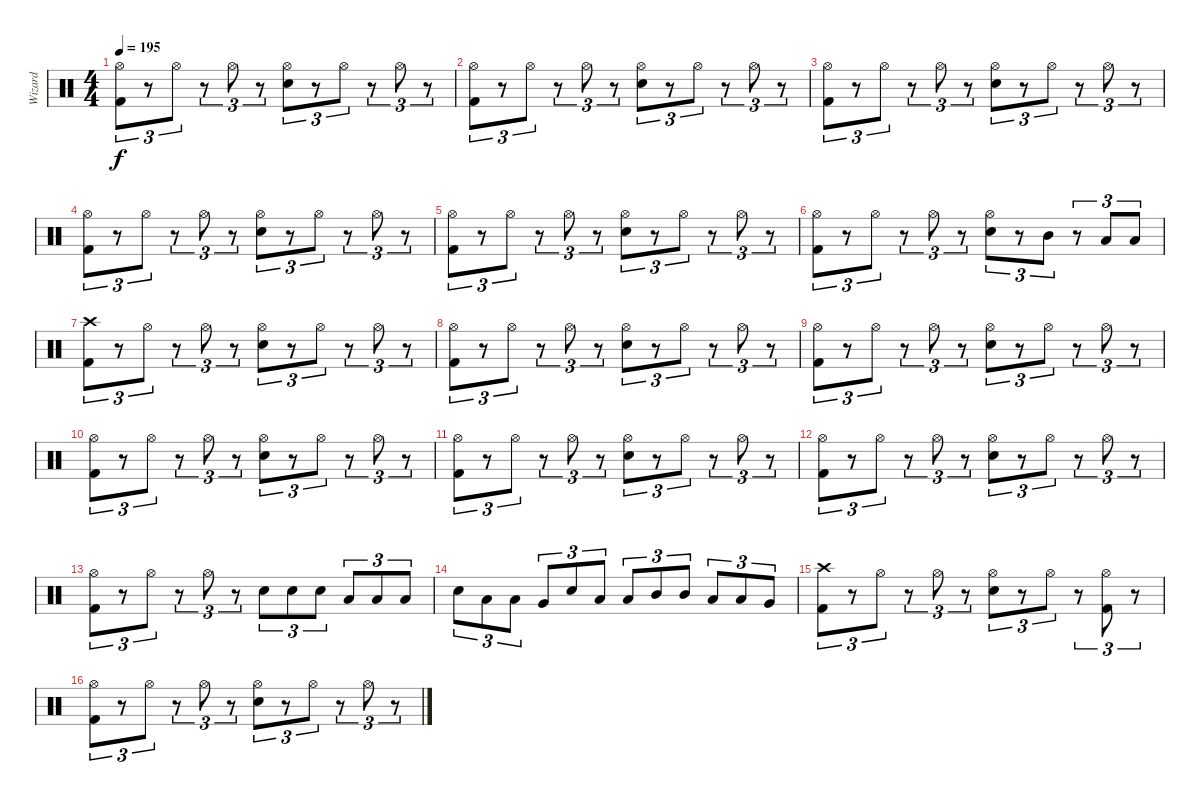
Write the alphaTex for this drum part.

\track ("Wizard" "Wizard") {instrument percussion}
\staff {score}
\articulation defaults
\ts (4 4)
\tempo 195
\clef neutral
\ks c
("Hi-Hat (open)" "Kick (hit) 2").8{tu (3 2) dy f} r.8{tu (3 2)} "Hi-Hat (open)".8{tu (3 2)} r.8{tu (3 2)} "Hi-Hat (open)".8{tu (3 2)} r.8{tu (3 2)} ("Hi-Hat (open)" "Snare (hit) 2").8{tu (3 2)} r.8{tu (3 2)} "Hi-Hat (open)".8{tu (3 2)} r.8{tu (3 2)} "Hi-Hat (open)".8{tu (3 2)} r.8{tu (3 2)} |
("Hi-Hat (open)" "Kick (hit) 2").8{tu (3 2)} r.8{tu (3 2)} "Hi-Hat (open)".8{tu (3 2)} r.8{tu (3 2)} "Hi-Hat (open)".8{tu (3 2)} r.8{tu (3 2)} ("Hi-Hat (open)" "Snare (hit) 2").8{tu (3 2)} r.8{tu (3 2)} "Hi-Hat (open)".8{tu (3 2)} r.8{tu (3 2)} "Hi-Hat (open)".8{tu (3 2)} r.8{tu (3 2)} |
("Hi-Hat (open)" "Kick (hit) 2").8{tu (3 2)} r.8{tu (3 2)} "Hi-Hat (open)".8{tu (3 2)} r.8{tu (3 2)} "Hi-Hat (open)".8{tu (3 2)} r.8{tu (3 2)} ("Hi-Hat (open)" "Snare (hit) 2").8{tu (3 2)} r.8{tu (3 2)} "Hi-Hat (open)".8{tu (3 2)} r.8{tu (3 2)} "Hi-Hat (open)".8{tu (3 2)} r.8{tu (3 2)} |
("Hi-Hat (open)" "Kick (hit) 2").8{tu (3 2)} r.8{tu (3 2)} "Hi-Hat (open)".8{tu (3 2)} r.8{tu (3 2)} "Hi-Hat (open)".8{tu (3 2)} r.8{tu (3 2)} ("Hi-Hat (open)" "Snare (hit) 2").8{tu (3 2)} r.8{tu (3 2)} "Hi-Hat (open)".8{tu (3 2)} r.8{tu (3 2)} "Hi-Hat (open)".8{tu (3 2)} r.8{tu (3 2)} |
("Hi-Hat (open)" "Kick (hit) 2").8{tu (3 2)} r.8{tu (3 2)} "Hi-Hat (open)".8{tu (3 2)} r.8{tu (3 2)} "Hi-Hat (open)".8{tu (3 2)} r.8{tu (3 2)} ("Hi-Hat (open)" "Snare (hit) 2").8{tu (3 2)} r.8{tu (3 2)} "Hi-Hat (open)".8{tu (3 2)} r.8{tu (3 2)} "Hi-Hat (open)".8{tu (3 2)} r.8{tu (3 2)} |
("Hi-Hat (open)" "Kick (hit) 2").8{tu (3 2)} r.8{tu (3 2)} "Hi-Hat (open)".8{tu (3 2)} r.8{tu (3 2)} "Hi-Hat (open)".8{tu (3 2)} r.8{tu (3 2)} ("Hi-Hat (open)" "Snare (hit) 2").8{tu (3 2)} r.8{tu (3 2)} "Mid Tom (hit)".8{tu (3 2)} r.8{tu (3 2)} "Low Tom (hit)".8{tu (3 2)} "Low Tom (hit)".8{tu (3 2)} |
("Crash high (hit)" "Kick (hit) 2").8{tu (3 2)} r.8{tu (3 2)} "Hi-Hat (open)".8{tu (3 2)} r.8{tu (3 2)} "Hi-Hat (open)".8{tu (3 2)} r.8{tu (3 2)} ("Hi-Hat (open)" "Snare (hit) 2").8{tu (3 2)} r.8{tu (3 2)} "Hi-Hat (open)".8{tu (3 2)} r.8{tu (3 2)} "Hi-Hat (open)".8{tu (3 2)} r.8{tu (3 2)} |
("Hi-Hat (open)" "Kick (hit) 2").8{tu (3 2)} r.8{tu (3 2)} "Hi-Hat (open)".8{tu (3 2)} r.8{tu (3 2)} "Hi-Hat (open)".8{tu (3 2)} r.8{tu (3 2)} ("Hi-Hat (open)" "Snare (hit) 2").8{tu (3 2)} r.8{tu (3 2)} "Hi-Hat (open)".8{tu (3 2)} r.8{tu (3 2)} "Hi-Hat (open)".8{tu (3 2)} r.8{tu (3 2)} |
("Hi-Hat (open)" "Kick (hit) 2").8{tu (3 2)} r.8{tu (3 2)} "Hi-Hat (open)".8{tu (3 2)} r.8{tu (3 2)} "Hi-Hat (open)".8{tu (3 2)} r.8{tu (3 2)} ("Hi-Hat (open)" "Snare (hit) 2").8{tu (3 2)} r.8{tu (3 2)} "Hi-Hat (open)".8{tu (3 2)} r.8{tu (3 2)} "Hi-Hat (open)".8{tu (3 2)} r.8{tu (3 2)} |
("Hi-Hat (open)" "Kick (hit) 2").8{tu (3 2)} r.8{tu (3 2)} "Hi-Hat (open)".8{tu (3 2)} r.8{tu (3 2)} "Hi-Hat (open)".8{tu (3 2)} r.8{tu (3 2)} ("Hi-Hat (open)" "Snare (hit) 2").8{tu (3 2)} r.8{tu (3 2)} "Hi-Hat (open)".8{tu (3 2)} r.8{tu (3 2)} "Hi-Hat (open)".8{tu (3 2)} r.8{tu (3 2)} |
("Hi-Hat (open)" "Kick (hit) 2").8{tu (3 2)} r.8{tu (3 2)} "Hi-Hat (open)".8{tu (3 2)} r.8{tu (3 2)} "Hi-Hat (open)".8{tu (3 2)} r.8{tu (3 2)} ("Hi-Hat (open)" "Snare (hit) 2").8{tu (3 2)} r.8{tu (3 2)} "Hi-Hat (open)".8{tu (3 2)} r.8{tu (3 2)} "Hi-Hat (open)".8{tu (3 2)} r.8{tu (3 2)} |
("Hi-Hat (open)" "Kick (hit) 2").8{tu (3 2)} r.8{tu (3 2)} "Hi-Hat (open)".8{tu (3 2)} r.8{tu (3 2)} "Hi-Hat (open)".8{tu (3 2)} r.8{tu (3 2)} ("Hi-Hat (open)" "Snare (hit) 2").8{tu (3 2)} r.8{tu (3 2)} "Hi-Hat (open)".8{tu (3 2)} r.8{tu (3 2)} "Hi-Hat (open)".8{tu (3 2)} r.8{tu (3 2)} |
("Hi-Hat (open)" "Kick (hit) 2").8{tu (3 2)} r.8{tu (3 2)} "Hi-Hat (open)".8{tu (3 2)} r.8{tu (3 2)} "Hi-Hat (open)".8{tu (3 2)} r.8{tu (3 2)} "Snare (hit) 2".8{tu (3 2)} "Snare (hit) 2".8{tu (3 2)} "Snare (hit) 2".8{tu (3 2)} "Low Tom (hit)".8{tu (3 2)} "Low Tom (hit)".8{tu (3 2)} "Low Tom (hit)".8{tu (3 2)} |
"Snare (hit) 2".8{tu (3 2)} "Low Tom (hit)".8{tu (3 2)} "Low Tom (hit)".8{tu (3 2)} "Very Low Tom (hit)".8{tu (3 2)} "Snare (hit) 2".8{tu (3 2)} "Low Tom (hit)".8{tu (3 2)} "Low Tom (hit)".8{tu (3 2)} "Mid Tom (hit)".8{tu (3 2)} "Mid Tom (hit)".8{tu (3 2)} "Low Tom (hit)".8{tu (3 2)} "Low Tom (hit)".8{tu (3 2)} "Very Low Tom (hit)".8{tu (3 2)} |
("Crash high (hit)" "Kick (hit) 2").8{tu (3 2)} r.8{tu (3 2)} "Hi-Hat (open)".8{tu (3 2)} r.8{tu (3 2)} "Hi-Hat (open)".8{tu (3 2)} r.8{tu (3 2)} ("Hi-Hat (open)" "Snare (hit) 2").8{tu (3 2)} r.8{tu (3 2)} "Hi-Hat (open)".8{tu (3 2)} r.8{tu (3 2)} ("Hi-Hat (open)" "Kick (hit) 2").8{tu (3 2)} r.8{tu (3 2)} |
("Hi-Hat (open)" "Kick (hit) 2").8{tu (3 2)} r.8{tu (3 2)} "Hi-Hat (open)".8{tu (3 2)} r.8{tu (3 2)} "Hi-Hat (open)".8{tu (3 2)} r.8{tu (3 2)} ("Hi-Hat (open)" "Snare (hit) 2").8{tu (3 2)} r.8{tu (3 2)} "Hi-Hat (open)".8{tu (3 2)} r.8{tu (3 2)} "Hi-Hat (open)".8{tu (3 2)} r.8{tu (3 2)}
